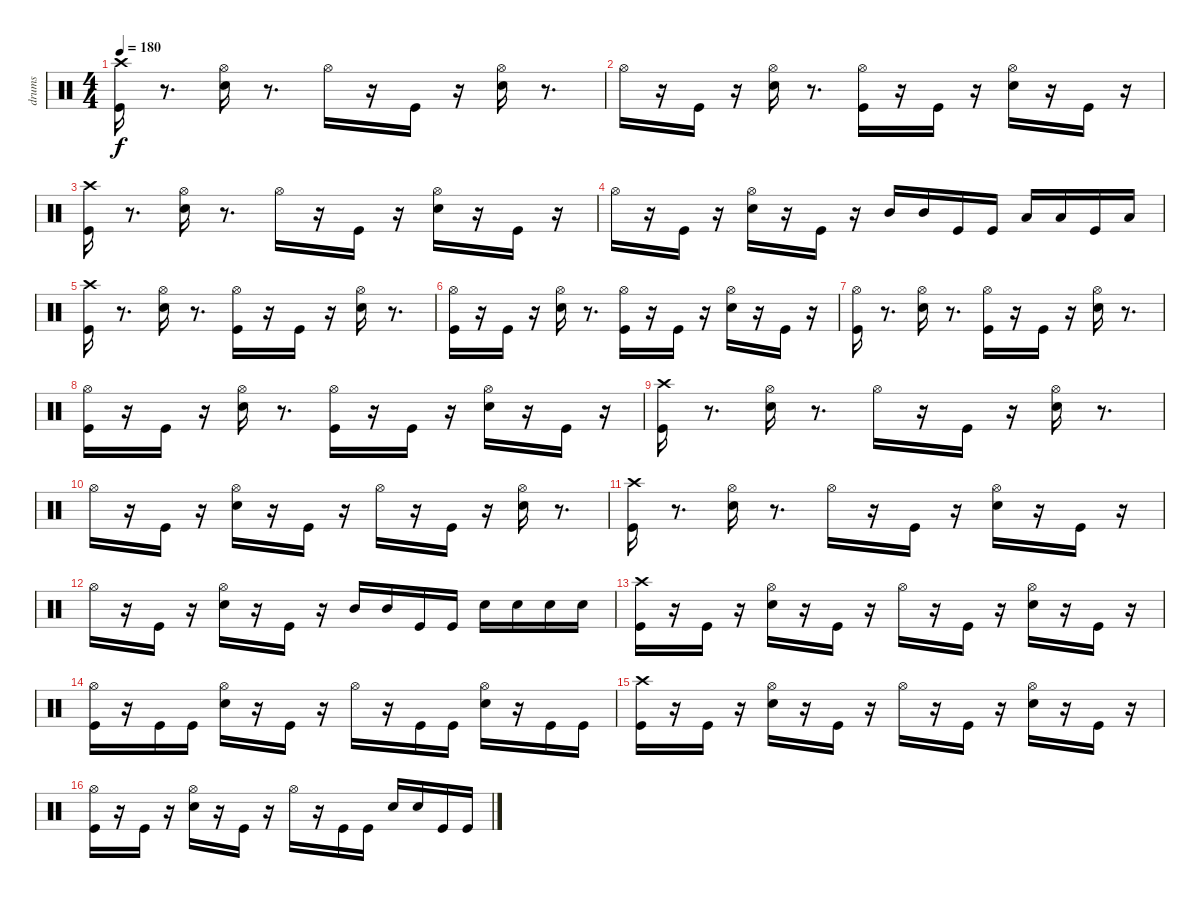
\track ("drums" "drums") {instrument percussion}
\staff {score}
\articulation defaults
\ts (4 4)
\tempo 180
\clef neutral
\ks c
("Crash high (hit)" "Kick (hit)").16{dy f} r.8{d} ("Hi-Hat (open)" "Snare (hit) 2").16 r.8{d} "Hi-Hat (open)".16 r.16 "Kick (hit)".16 r.16 ("Hi-Hat (open)" "Snare (hit) 2").16 r.8{d} |
"Hi-Hat (open)".16 r.16 "Kick (hit)".16 r.16 ("Hi-Hat (open)" "Snare (hit) 2").16 r.8{d} ("Kick (hit)" "Hi-Hat (open)").16 r.16 "Kick (hit)".16 r.16 ("Hi-Hat (open)" "Snare (hit) 2").16 r.16 "Kick (hit)".16 r.16 |
("Crash high (hit)" "Kick (hit)").16 r.8{d} ("Hi-Hat (open)" "Snare (hit) 2").16 r.8{d} "Hi-Hat (open)".16 r.16 "Kick (hit)".16 r.16 ("Hi-Hat (open)" "Snare (hit) 2").16 r.16 "Kick (hit)".16 r.16 |
"Hi-Hat (open)".16 r.16 "Kick (hit)".16 r.16 ("Hi-Hat (open)" "Snare (hit) 2").16 r.16 "Kick (hit)".16 r.16 "Mid Tom (hit)".16 "Mid Tom (hit)".16 "Kick (hit)".16 "Kick (hit)".16 "Low Tom (hit)".16 "Low Tom (hit)".16 "Kick (hit)".16 "Low Tom (hit)".16 |
("Crash high (hit)" "Kick (hit)").16 r.8{d} ("Hi-Hat (open)" "Snare (hit) 2").16 r.8{d} ("Hi-Hat (open)" "Kick (hit)").16 r.16 "Kick (hit)".16 r.16 ("Hi-Hat (open)" "Snare (hit) 2").16 r.8{d} |
("Hi-Hat (open)" "Kick (hit)").16 r.16 "Kick (hit)".16 r.16 ("Hi-Hat (open)" "Snare (hit) 2").16 r.8{d} ("Hi-Hat (open)" "Kick (hit)").16 r.16 "Kick (hit)".16 r.16 ("Hi-Hat (open)" "Snare (hit) 2").16 r.16 "Kick (hit)".16 r.16 |
("Hi-Hat (open)" "Kick (hit)").16 r.8{d} ("Hi-Hat (open)" "Snare (hit) 2").16 r.8{d} ("Hi-Hat (open)" "Kick (hit)").16 r.16 "Kick (hit)".16 r.16 ("Hi-Hat (open)" "Snare (hit) 2").16 r.8{d} |
("Hi-Hat (open)" "Kick (hit)").16 r.16 "Kick (hit)".16 r.16 ("Hi-Hat (open)" "Snare (hit) 2").16 r.8{d} ("Hi-Hat (open)" "Kick (hit)").16 r.16 "Kick (hit)".16 r.16 ("Hi-Hat (open)" "Snare (hit) 2").16 r.16 "Kick (hit)".16 r.16 |
("Crash high (hit)" "Kick (hit)").16 r.8{d} ("Hi-Hat (open)" "Snare (hit) 2").16 r.8{d} "Hi-Hat (open)".16 r.16 "Kick (hit)".16 r.16 ("Hi-Hat (open)" "Snare (hit) 2").16 r.8{d} |
"Hi-Hat (open)".16 r.16 "Kick (hit)".16 r.16 ("Hi-Hat (open)" "Snare (hit) 2").16 r.16 "Kick (hit)".16 r.16 "Hi-Hat (open)".16 r.16 "Kick (hit)".16 r.16 ("Hi-Hat (open)" "Snare (hit) 2").16 r.8{d} |
("Crash high (hit)" "Kick (hit)").16 r.8{d} ("Hi-Hat (open)" "Snare (hit) 2").16 r.8{d} "Hi-Hat (open)".16 r.16 "Kick (hit)".16 r.16 ("Hi-Hat (open)" "Snare (hit) 2").16 r.16 "Kick (hit)".16 r.16 |
"Hi-Hat (open)".16 r.16 "Kick (hit)".16 r.16 ("Hi-Hat (open)" "Snare (hit) 2").16 r.16 "Kick (hit)".16 r.16 "Mid Tom (hit)".16 "Mid Tom (hit)".16 "Kick (hit)".16 "Kick (hit)".16 "Snare (hit) 2".16 "Snare (hit) 2".16 "Snare (hit) 2".16 "Snare (hit) 2".16 |
("Crash high (hit)" "Kick (hit)").16 r.16 "Kick (hit)".16 r.16 ("Hi-Hat (open)" "Snare (hit) 2").16 r.16 "Kick (hit)".16 r.16 "Hi-Hat (open)".16 r.16 "Kick (hit)".16 r.16 ("Hi-Hat (open)" "Snare (hit) 2").16 r.16 "Kick (hit)".16 r.16 |
("Hi-Hat (open)" "Kick (hit)").16 r.16 "Kick (hit)".16 "Kick (hit)".16 ("Hi-Hat (open)" "Snare (hit) 2").16 r.16 "Kick (hit)".16 r.16 "Hi-Hat (open)".16 r.16 "Kick (hit)".16 "Kick (hit)".16 ("Hi-Hat (open)" "Snare (hit) 2").16 r.16 "Kick (hit)".16 "Kick (hit)".16 |
("Crash high (hit)" "Kick (hit)").16 r.16 "Kick (hit)".16 r.16 ("Hi-Hat (open)" "Snare (hit) 2").16 r.16 "Kick (hit)".16 r.16 "Hi-Hat (open)".16 r.16 "Kick (hit)".16 r.16 ("Hi-Hat (open)" "Snare (hit) 2").16 r.16 "Kick (hit)".16 r.16 |
("Hi-Hat (open)" "Kick (hit)").16 r.16 "Kick (hit)".16 r.16 ("Hi-Hat (open)" "Snare (hit) 2").16 r.16 "Kick (hit)".16 r.16 "Hi-Hat (open)".16 r.16 "Kick (hit)".16 "Kick (hit)".16 "Snare (hit) 2".16 "Snare (hit) 2".16 "Kick (hit)".16 "Kick (hit)".16
